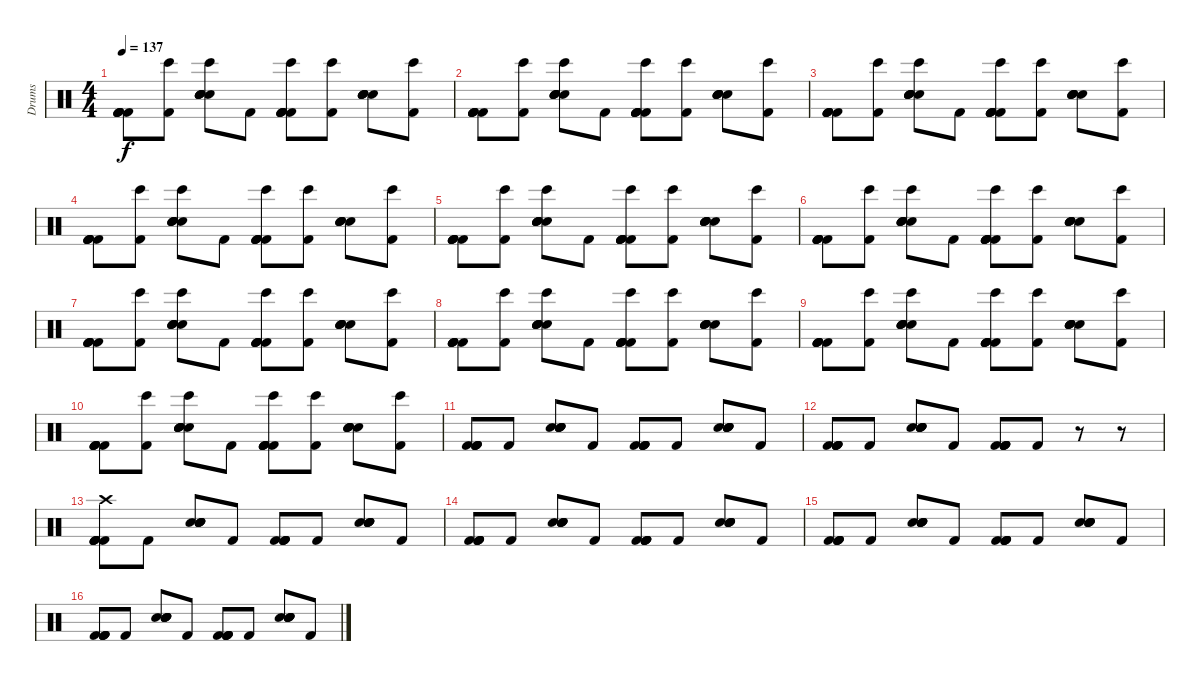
\track ("Drums" "Drums") {instrument percussion}
\staff {score}
\articulation defaults
\ts (4 4)
\tempo 137
\clef neutral
\ks c
("Kick (hit) 2" "Kick (hit) 2" "Kick (hit) 2" "Kick (hit) 2" "Kick (hit) 2").8{dy f} ("Bongo High (hit)" "Kick (hit) 2").8 ("Bongo High (hit)" "Snare (hit) 2" "Snare (hit) 2" "Snare (hit) 2" "Snare (hit) 2" "Snare (hit) 2").8 "Kick (hit) 2".8 ("Bongo High (hit)" "Kick (hit) 2" "Kick (hit) 2" "Kick (hit) 2" "Kick (hit) 2" "Kick (hit) 2").8 ("Bongo High (hit)" "Kick (hit) 2").8 ("Snare (hit) 2" "Snare (hit) 2" "Snare (hit) 2" "Snare (hit) 2" "Snare (hit) 2").8 ("Bongo High (hit)" "Kick (hit) 2").8 |
("Kick (hit) 2" "Kick (hit) 2" "Kick (hit) 2" "Kick (hit) 2" "Kick (hit) 2").8 ("Bongo High (hit)" "Kick (hit) 2").8 ("Bongo High (hit)" "Snare (hit) 2" "Snare (hit) 2" "Snare (hit) 2" "Snare (hit) 2" "Snare (hit) 2").8 "Kick (hit) 2".8 ("Bongo High (hit)" "Kick (hit) 2" "Kick (hit) 2" "Kick (hit) 2" "Kick (hit) 2" "Kick (hit) 2").8 ("Bongo High (hit)" "Kick (hit) 2").8 ("Snare (hit) 2" "Snare (hit) 2" "Snare (hit) 2" "Snare (hit) 2" "Snare (hit) 2").8 ("Bongo High (hit)" "Kick (hit) 2").8 |
("Kick (hit) 2" "Kick (hit) 2" "Kick (hit) 2" "Kick (hit) 2" "Kick (hit) 2").8 ("Bongo High (hit)" "Kick (hit) 2").8 ("Bongo High (hit)" "Snare (hit) 2" "Snare (hit) 2" "Snare (hit) 2" "Snare (hit) 2" "Snare (hit) 2").8 "Kick (hit) 2".8 ("Bongo High (hit)" "Kick (hit) 2" "Kick (hit) 2" "Kick (hit) 2" "Kick (hit) 2" "Kick (hit) 2").8 ("Bongo High (hit)" "Kick (hit) 2").8 ("Snare (hit) 2" "Snare (hit) 2" "Snare (hit) 2" "Snare (hit) 2" "Snare (hit) 2").8 ("Bongo High (hit)" "Kick (hit) 2").8 |
("Kick (hit) 2" "Kick (hit) 2" "Kick (hit) 2" "Kick (hit) 2" "Kick (hit) 2").8 ("Bongo High (hit)" "Kick (hit) 2").8 ("Bongo High (hit)" "Snare (hit) 2" "Snare (hit) 2" "Snare (hit) 2" "Snare (hit) 2" "Snare (hit) 2").8 "Kick (hit) 2".8 ("Bongo High (hit)" "Kick (hit) 2" "Kick (hit) 2" "Kick (hit) 2" "Kick (hit) 2" "Kick (hit) 2").8 ("Bongo High (hit)" "Kick (hit) 2").8 ("Snare (hit) 2" "Snare (hit) 2" "Snare (hit) 2" "Snare (hit) 2" "Snare (hit) 2").8 ("Bongo High (hit)" "Kick (hit) 2").8 |
("Kick (hit) 2" "Kick (hit) 2" "Kick (hit) 2" "Kick (hit) 2" "Kick (hit) 2").8 ("Bongo High (hit)" "Kick (hit) 2").8 ("Bongo High (hit)" "Snare (hit) 2" "Snare (hit) 2" "Snare (hit) 2" "Snare (hit) 2" "Snare (hit) 2").8 "Kick (hit) 2".8 ("Bongo High (hit)" "Kick (hit) 2" "Kick (hit) 2" "Kick (hit) 2" "Kick (hit) 2" "Kick (hit) 2").8 ("Bongo High (hit)" "Kick (hit) 2").8 ("Snare (hit) 2" "Snare (hit) 2" "Snare (hit) 2" "Snare (hit) 2" "Snare (hit) 2").8 ("Bongo High (hit)" "Kick (hit) 2").8 |
("Kick (hit) 2" "Kick (hit) 2" "Kick (hit) 2" "Kick (hit) 2" "Kick (hit) 2").8 ("Bongo High (hit)" "Kick (hit) 2").8 ("Bongo High (hit)" "Snare (hit) 2" "Snare (hit) 2" "Snare (hit) 2" "Snare (hit) 2" "Snare (hit) 2").8 "Kick (hit) 2".8 ("Bongo High (hit)" "Kick (hit) 2" "Kick (hit) 2" "Kick (hit) 2" "Kick (hit) 2" "Kick (hit) 2").8 ("Bongo High (hit)" "Kick (hit) 2").8 ("Snare (hit) 2" "Snare (hit) 2" "Snare (hit) 2" "Snare (hit) 2" "Snare (hit) 2").8 ("Bongo High (hit)" "Kick (hit) 2").8 |
("Kick (hit) 2" "Kick (hit) 2" "Kick (hit) 2" "Kick (hit) 2" "Kick (hit) 2").8 ("Bongo High (hit)" "Kick (hit) 2").8 ("Bongo High (hit)" "Snare (hit) 2" "Snare (hit) 2" "Snare (hit) 2" "Snare (hit) 2" "Snare (hit) 2").8 "Kick (hit) 2".8 ("Bongo High (hit)" "Kick (hit) 2" "Kick (hit) 2" "Kick (hit) 2" "Kick (hit) 2" "Kick (hit) 2").8 ("Bongo High (hit)" "Kick (hit) 2").8 ("Snare (hit) 2" "Snare (hit) 2" "Snare (hit) 2" "Snare (hit) 2" "Snare (hit) 2").8 ("Bongo High (hit)" "Kick (hit) 2").8 |
("Kick (hit) 2" "Kick (hit) 2" "Kick (hit) 2" "Kick (hit) 2" "Kick (hit) 2").8 ("Bongo High (hit)" "Kick (hit) 2").8 ("Bongo High (hit)" "Snare (hit) 2" "Snare (hit) 2" "Snare (hit) 2" "Snare (hit) 2" "Snare (hit) 2").8 "Kick (hit) 2".8 ("Bongo High (hit)" "Kick (hit) 2" "Kick (hit) 2" "Kick (hit) 2" "Kick (hit) 2" "Kick (hit) 2").8 ("Bongo High (hit)" "Kick (hit) 2").8 ("Snare (hit) 2" "Snare (hit) 2" "Snare (hit) 2" "Snare (hit) 2" "Snare (hit) 2").8 ("Bongo High (hit)" "Kick (hit) 2").8 |
("Kick (hit) 2" "Kick (hit) 2" "Kick (hit) 2" "Kick (hit) 2" "Kick (hit) 2").8 ("Bongo High (hit)" "Kick (hit) 2").8 ("Bongo High (hit)" "Snare (hit) 2" "Snare (hit) 2" "Snare (hit) 2" "Snare (hit) 2" "Snare (hit) 2").8 "Kick (hit) 2".8 ("Bongo High (hit)" "Kick (hit) 2" "Kick (hit) 2" "Kick (hit) 2" "Kick (hit) 2" "Kick (hit) 2").8 ("Bongo High (hit)" "Kick (hit) 2").8 ("Snare (hit) 2" "Snare (hit) 2" "Snare (hit) 2" "Snare (hit) 2" "Snare (hit) 2").8 ("Bongo High (hit)" "Kick (hit) 2").8 |
("Kick (hit) 2" "Kick (hit) 2" "Kick (hit) 2" "Kick (hit) 2" "Kick (hit) 2").8 ("Bongo High (hit)" "Kick (hit) 2").8 ("Bongo High (hit)" "Snare (hit) 2" "Snare (hit) 2" "Snare (hit) 2" "Snare (hit) 2" "Snare (hit) 2").8 "Kick (hit) 2".8 ("Bongo High (hit)" "Kick (hit) 2" "Kick (hit) 2" "Kick (hit) 2" "Kick (hit) 2" "Kick (hit) 2").8 ("Bongo High (hit)" "Kick (hit) 2").8 ("Snare (hit) 2" "Snare (hit) 2" "Snare (hit) 2" "Snare (hit) 2" "Snare (hit) 2").8 ("Bongo High (hit)" "Kick (hit) 2").8 |
("Kick (hit) 2" "Kick (hit) 2" "Kick (hit) 2" "Kick (hit) 2" "Kick (hit) 2").8 "Kick (hit) 2".8 ("Snare (hit) 2" "Snare (hit) 2" "Snare (hit) 2" "Snare (hit) 2" "Snare (hit) 2").8 "Kick (hit) 2".8 ("Kick (hit) 2" "Kick (hit) 2" "Kick (hit) 2" "Kick (hit) 2" "Kick (hit) 2").8 "Kick (hit) 2".8 ("Snare (hit) 2" "Snare (hit) 2" "Snare (hit) 2" "Snare (hit) 2" "Snare (hit) 2").8 "Kick (hit) 2".8 |
("Kick (hit) 2" "Kick (hit) 2" "Kick (hit) 2" "Kick (hit) 2" "Kick (hit) 2").8 "Kick (hit) 2".8 ("Snare (hit) 2" "Snare (hit) 2" "Snare (hit) 2" "Snare (hit) 2" "Snare (hit) 2").8 "Kick (hit) 2".8 ("Kick (hit) 2" "Kick (hit) 2" "Kick (hit) 2" "Kick (hit) 2" "Kick (hit) 2").8 "Kick (hit) 2".8 r.8 r.8 |
("Crash high (hit)" "Kick (hit) 2" "Kick (hit) 2" "Kick (hit) 2" "Kick (hit) 2" "Kick (hit) 2").8 "Kick (hit) 2".8 ("Snare (hit) 2" "Snare (hit) 2" "Snare (hit) 2" "Snare (hit) 2" "Snare (hit) 2").8 "Kick (hit) 2".8 ("Kick (hit) 2" "Kick (hit) 2" "Kick (hit) 2" "Kick (hit) 2" "Kick (hit) 2").8 "Kick (hit) 2".8 ("Snare (hit) 2" "Snare (hit) 2" "Snare (hit) 2" "Snare (hit) 2" "Snare (hit) 2").8 "Kick (hit) 2".8 |
("Kick (hit) 2" "Kick (hit) 2" "Kick (hit) 2" "Kick (hit) 2" "Kick (hit) 2").8 "Kick (hit) 2".8 ("Snare (hit) 2" "Snare (hit) 2" "Snare (hit) 2" "Snare (hit) 2" "Snare (hit) 2").8 "Kick (hit) 2".8 ("Kick (hit) 2" "Kick (hit) 2" "Kick (hit) 2" "Kick (hit) 2" "Kick (hit) 2").8 "Kick (hit) 2".8 ("Snare (hit) 2" "Snare (hit) 2" "Snare (hit) 2" "Snare (hit) 2" "Snare (hit) 2").8 "Kick (hit) 2".8 |
("Kick (hit) 2" "Kick (hit) 2" "Kick (hit) 2" "Kick (hit) 2" "Kick (hit) 2").8 "Kick (hit) 2".8 ("Snare (hit) 2" "Snare (hit) 2" "Snare (hit) 2" "Snare (hit) 2" "Snare (hit) 2").8 "Kick (hit) 2".8 ("Kick (hit) 2" "Kick (hit) 2" "Kick (hit) 2" "Kick (hit) 2" "Kick (hit) 2").8 "Kick (hit) 2".8 ("Snare (hit) 2" "Snare (hit) 2" "Snare (hit) 2" "Snare (hit) 2" "Snare (hit) 2").8 "Kick (hit) 2".8 |
("Kick (hit) 2" "Kick (hit) 2" "Kick (hit) 2" "Kick (hit) 2" "Kick (hit) 2").8 "Kick (hit) 2".8 ("Snare (hit) 2" "Snare (hit) 2" "Snare (hit) 2" "Snare (hit) 2" "Snare (hit) 2").8 "Kick (hit) 2".8 ("Kick (hit) 2" "Kick (hit) 2" "Kick (hit) 2" "Kick (hit) 2" "Kick (hit) 2").8 "Kick (hit) 2".8 ("Snare (hit) 2" "Snare (hit) 2" "Snare (hit) 2" "Snare (hit) 2" "Snare (hit) 2").8 "Kick (hit) 2".8
